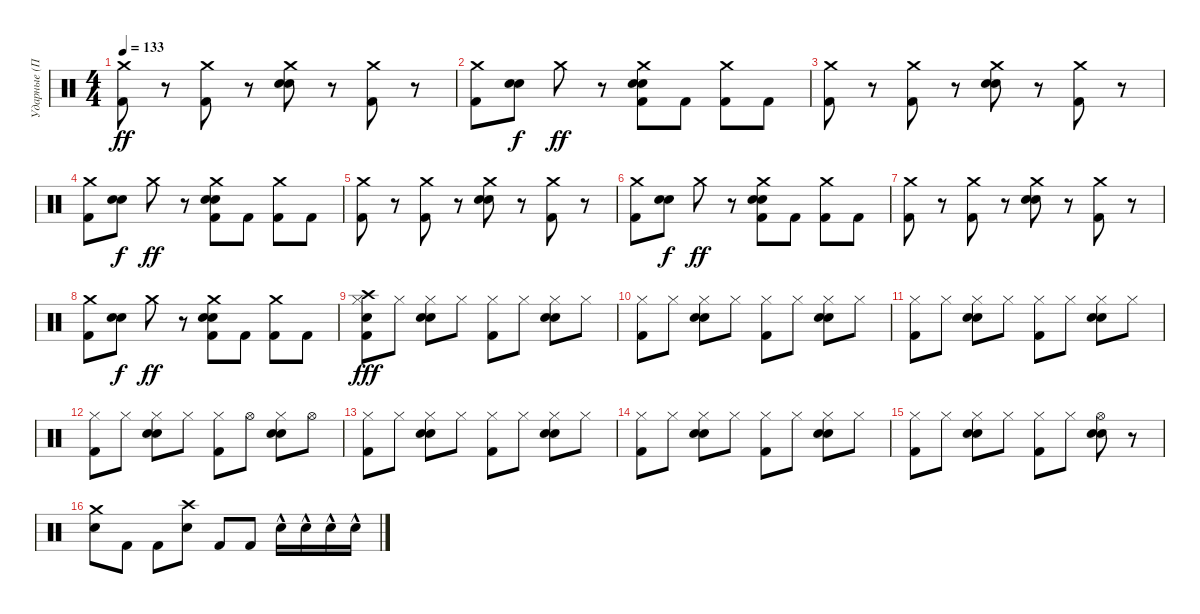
\track ("Ударные (Пацан в Дредах)" "Ударные (П") {instrument percussion}
\staff {score}
\articulation defaults
\ts (4 4)
\tempo 133
\clef neutral
\ks c
("Crash medium (hit)" "Kick (hit) 2").8{dy ff} r.8 ("Crash medium (hit)" "Kick (hit) 2").8 r.8 ("Crash medium (hit)" "Hand Clap (hit)" "Electric Snare (hit)").8 r.8 ("Crash medium (hit)" "Kick (hit) 2").8 r.8 |
("Crash medium (hit)" "Kick (hit) 2").8 ("Hand Clap (hit)" "Electric Snare (hit)").8{dy f} "Crash medium (hit)".8{dy ff} r.8 ("Crash medium (hit)" "Hand Clap (hit)" "Electric Snare (hit)" "Kick (hit) 2").8 "Kick (hit) 2".8 ("Crash medium (hit)" "Kick (hit) 2").8 "Kick (hit) 2".8 |
("Crash medium (hit)" "Kick (hit) 2").8 r.8 ("Crash medium (hit)" "Kick (hit) 2").8 r.8 ("Crash medium (hit)" "Hand Clap (hit)" "Electric Snare (hit)").8 r.8 ("Crash medium (hit)" "Kick (hit) 2").8 r.8 |
("Crash medium (hit)" "Kick (hit) 2").8 ("Hand Clap (hit)" "Electric Snare (hit)").8{dy f} "Crash medium (hit)".8{dy ff} r.8 ("Crash medium (hit)" "Hand Clap (hit)" "Electric Snare (hit)" "Kick (hit) 2").8 "Kick (hit) 2".8 ("Crash medium (hit)" "Kick (hit) 2").8 "Kick (hit) 2".8 |
("Crash medium (hit)" "Kick (hit) 2").8 r.8 ("Crash medium (hit)" "Kick (hit) 2").8 r.8 ("Crash medium (hit)" "Hand Clap (hit)" "Electric Snare (hit)").8 r.8 ("Crash medium (hit)" "Kick (hit) 2").8 r.8 |
("Crash medium (hit)" "Kick (hit) 2").8 ("Hand Clap (hit)" "Electric Snare (hit)").8{dy f} "Crash medium (hit)".8{dy ff} r.8 ("Crash medium (hit)" "Hand Clap (hit)" "Electric Snare (hit)" "Kick (hit) 2").8 "Kick (hit) 2".8 ("Crash medium (hit)" "Kick (hit) 2").8 "Kick (hit) 2".8 |
("Crash medium (hit)" "Kick (hit) 2").8 r.8 ("Crash medium (hit)" "Kick (hit) 2").8 r.8 ("Crash medium (hit)" "Hand Clap (hit)" "Electric Snare (hit)").8 r.8 ("Crash medium (hit)" "Kick (hit) 2").8 r.8 |
("Crash medium (hit)" "Kick (hit) 2").8 ("Hand Clap (hit)" "Electric Snare (hit)").8{dy f} "Crash medium (hit)".8{dy ff} r.8 ("Crash medium (hit)" "Hand Clap (hit)" "Electric Snare (hit)" "Kick (hit) 2").8 "Kick (hit) 2".8 ("Crash medium (hit)" "Kick (hit) 2").8 "Kick (hit) 2".8 |
("Crash high (hit)" "Hi-Hat (closed)" "Snare (hit)" "Kick (hit) 2").8{dy fff} "Hi-Hat (closed)".8 ("Hi-Hat (closed)" "Electric Snare (hit)" "Hand Clap (hit)").8 "Hi-Hat (closed)".8 ("Hi-Hat (closed)" "Kick (hit) 2").8 "Hi-Hat (closed)".8 ("Hi-Hat (closed)" "Electric Snare (hit)" "Hand Clap (hit)").8 "Hi-Hat (closed)".8 |
("Hi-Hat (closed)" "Kick (hit) 2").8 "Hi-Hat (closed)".8 ("Hi-Hat (closed)" "Electric Snare (hit)" "Hand Clap (hit)").8 "Hi-Hat (closed)".8 ("Hi-Hat (closed)" "Kick (hit) 2").8 "Hi-Hat (closed)".8 ("Hi-Hat (closed)" "Electric Snare (hit)" "Hand Clap (hit)").8 "Hi-Hat (closed)".8 |
("Hi-Hat (closed)" "Kick (hit) 2").8 "Hi-Hat (closed)".8 ("Hi-Hat (closed)" "Electric Snare (hit)" "Hand Clap (hit)").8 "Hi-Hat (closed)".8 ("Hi-Hat (closed)" "Kick (hit) 2").8 "Hi-Hat (closed)".8 ("Hi-Hat (closed)" "Electric Snare (hit)" "Hand Clap (hit)").8 "Hi-Hat (closed)".8 |
("Hi-Hat (closed)" "Kick (hit) 2").8 "Hi-Hat (closed)".8 ("Hi-Hat (closed)" "Electric Snare (hit)" "Hand Clap (hit)").8 "Hi-Hat (closed)".8 ("Hi-Hat (closed)" "Kick (hit) 2").8 "Hi-Hat (open)".8 ("Hi-Hat (closed)" "Electric Snare (hit)" "Hand Clap (hit)").8 "Hi-Hat (open)".8 |
("Hi-Hat (closed)" "Kick (hit) 2").8 "Hi-Hat (closed)".8 ("Hi-Hat (closed)" "Electric Snare (hit)" "Hand Clap (hit)").8 "Hi-Hat (closed)".8 ("Hi-Hat (closed)" "Kick (hit) 2").8 "Hi-Hat (closed)".8 ("Hi-Hat (closed)" "Electric Snare (hit)" "Hand Clap (hit)").8 "Hi-Hat (closed)".8 |
("Hi-Hat (closed)" "Kick (hit) 2").8 "Hi-Hat (closed)".8 ("Hi-Hat (closed)" "Electric Snare (hit)" "Hand Clap (hit)").8 "Hi-Hat (closed)".8 ("Hi-Hat (closed)" "Kick (hit) 2").8 "Hi-Hat (closed)".8 ("Hi-Hat (closed)" "Electric Snare (hit)" "Hand Clap (hit)").8 "Hi-Hat (closed)".8 |
("Hi-Hat (closed)" "Kick (hit) 2").8 "Hi-Hat (closed)".8 ("Hi-Hat (closed)" "Electric Snare (hit)" "Hand Clap (hit)").8 "Hi-Hat (closed)".8 ("Hi-Hat (closed)" "Kick (hit) 2").8 "Hi-Hat (closed)".8 ("Hi-Hat (open)" "Electric Snare (hit)" "Hand Clap (hit)").8 r.8 |
("Crash medium (hit)" "Electric Snare (hit)").8 "Kick (hit) 2".8 "Kick (hit) 2".8 ("Crash high (hit)" "Electric Snare (hit)").8 "Kick (hit) 2".8 "Kick (hit) 2".8 "Electric Snare (hit)"{hac}.16 "Electric Snare (hit)"{hac}.16 "Electric Snare (hit)"{hac}.16 "Electric Snare (hit)"{hac}.16
